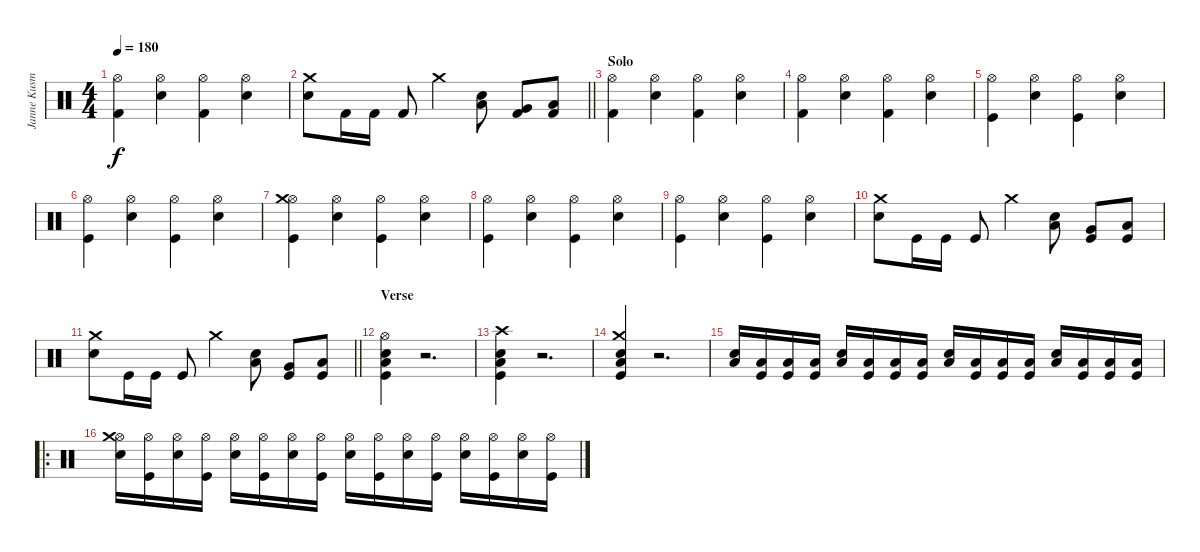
\track ("Janne Kusmin" "Janne Kusm") {instrument percussion}
\staff {score}
\articulation defaults
\ts (4 4)
\tempo 180
\clef neutral
\ks c
("Kick (hit) 2" "Hi-Hat (open)").4{dy f} ("Electric Snare (hit)" "Hi-Hat (open)").4 ("Kick (hit) 2" "Hi-Hat (open)").4 ("Electric Snare (hit)" "Hi-Hat (open)").4 |
\barLineRight lightlight
("Electric Snare (hit)" "Crash medium (hit)").8 "Kick (hit) 2".16 "Kick (hit) 2".16 "Kick (hit) 2".8 "Crash medium (hit)".4 ("Electric Snare (hit)" "Low Tom (hit)").8 ("Kick (hit) 2" "Very Low Tom (hit)").8 ("Kick (hit) 2" "Low Floor Tom (hit)").8 |
\section ("" "Solo")
("Kick (hit) 2" "Hi-Hat (open)").4 ("Electric Snare (hit)" "Hi-Hat (open)").4 ("Kick (hit) 2" "Hi-Hat (open)").4 ("Electric Snare (hit)" "Hi-Hat (open)").4 |
("Kick (hit) 2" "Hi-Hat (open)").4 ("Electric Snare (hit)" "Hi-Hat (open)").4 ("Kick (hit) 2" "Hi-Hat (open)").4 ("Electric Snare (hit)" "Hi-Hat (open)").4 |
("Kick (hit)" "Hi-Hat (open)").4 ("Electric Snare (hit)" "Hi-Hat (open)").4 ("Kick (hit)" "Hi-Hat (open)").4 ("Electric Snare (hit)" "Hi-Hat (open)").4 |
("Kick (hit)" "Hi-Hat (open)").4 ("Electric Snare (hit)" "Hi-Hat (open)").4 ("Kick (hit)" "Hi-Hat (open)").4 ("Electric Snare (hit)" "Hi-Hat (open)").4 |
("Kick (hit)" "Hi-Hat (open)" "Crash medium (hit)").4 ("Electric Snare (hit)" "Hi-Hat (open)").4 ("Kick (hit)" "Hi-Hat (open)").4 ("Electric Snare (hit)" "Hi-Hat (open)").4 |
("Kick (hit)" "Hi-Hat (open)").4 ("Electric Snare (hit)" "Hi-Hat (open)").4 ("Kick (hit)" "Hi-Hat (open)").4 ("Electric Snare (hit)" "Hi-Hat (open)").4 |
("Kick (hit)" "Hi-Hat (open)").4 ("Electric Snare (hit)" "Hi-Hat (open)").4 ("Kick (hit)" "Hi-Hat (open)").4 ("Electric Snare (hit)" "Hi-Hat (open)").4 |
("Electric Snare (hit)" "Crash medium (hit)").8 "Kick (hit)".16 "Kick (hit)".16 "Kick (hit)".8 "Crash medium (hit)".4 ("Electric Snare (hit)" "Low Tom (hit)").8 ("Kick (hit)" "Very Low Tom (hit)").8 ("Kick (hit)" "Low Floor Tom (hit)").8 |
\barLineRight lightlight
("Electric Snare (hit)" "Crash medium (hit)").8 "Kick (hit)".16 "Kick (hit)".16 "Kick (hit)".8 "Crash medium (hit)".4 ("Electric Snare (hit)" "Low Tom (hit)").8 ("Kick (hit)" "Very Low Tom (hit)").8 ("Kick (hit)" "Low Floor Tom (hit)").8 |
\section ("" "Verse")
("Kick (hit)" "Low Tom (hit)" "Electric Snare (hit)" "Hi-Hat (open)").4 r.2{d} |
("Kick (hit)" "Low Tom (hit)" "Electric Snare (hit)" "Crash high (hit)").4 r.2{d} |
("Kick (hit)" "Low Tom (hit)" "Electric Snare (hit)" "Crash medium (hit)").4 r.2{d} |
("Electric Snare (hit)" "Low Floor Tom (hit)").16 ("Kick (hit)" "Low Floor Tom (hit)").16 ("Kick (hit)" "Low Floor Tom (hit)").16 ("Kick (hit)" "Low Floor Tom (hit)").16 ("Electric Snare (hit)" "Low Floor Tom (hit)").16 ("Kick (hit)" "Low Floor Tom (hit)").16 ("Kick (hit)" "Low Floor Tom (hit)").16 ("Kick (hit)" "Low Floor Tom (hit)").16 ("Electric Snare (hit)" "Low Floor Tom (hit)").16 ("Kick (hit)" "Low Floor Tom (hit)").16 ("Kick (hit)" "Low Floor Tom (hit)").16 ("Kick (hit)" "Low Floor Tom (hit)").16 ("Electric Snare (hit)" "Low Floor Tom (hit)").16 ("Kick (hit)" "Low Floor Tom (hit)").16 ("Kick (hit)" "Low Floor Tom (hit)").16 ("Kick (hit)" "Low Floor Tom (hit)").16 |
\ro
("Electric Snare (hit)" "Hi-Hat (open)" "Crash medium (hit)").16 ("Kick (hit)" "Hi-Hat (open)").16 ("Electric Snare (hit)" "Hi-Hat (open)").16 ("Kick (hit)" "Hi-Hat (open)").16 ("Electric Snare (hit)" "Hi-Hat (open)").16 ("Kick (hit)" "Hi-Hat (open)").16 ("Electric Snare (hit)" "Hi-Hat (open)").16 ("Kick (hit)" "Hi-Hat (open)").16 ("Electric Snare (hit)" "Hi-Hat (open)").16 ("Kick (hit)" "Hi-Hat (open)").16 ("Electric Snare (hit)" "Hi-Hat (open)").16 ("Kick (hit)" "Hi-Hat (open)").16 ("Electric Snare (hit)" "Hi-Hat (open)").16 ("Kick (hit)" "Hi-Hat (open)").16 ("Electric Snare (hit)" "Hi-Hat (open)").16 ("Kick (hit)" "Hi-Hat (open)").16
